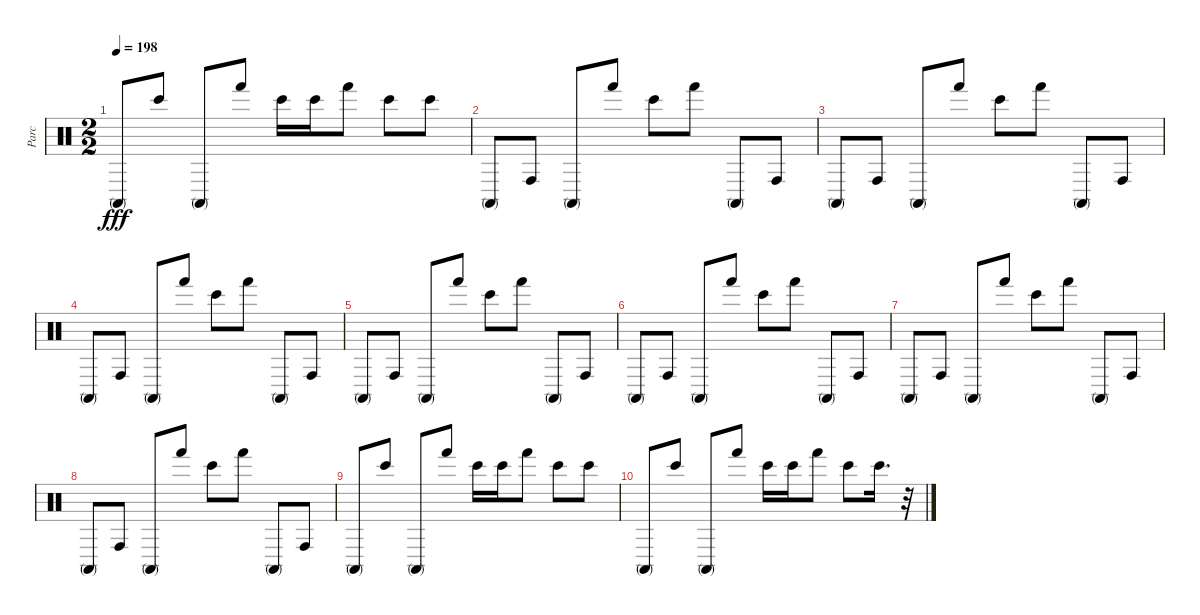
\track ("Parc" "Parc") {instrument percussion}
\staff {score}
\articulation defaults
\ts (2 2)
\tempo 198
\clef neutral
\ks c "Conga high (mute)".8{dy fff} "Bongo High (hit)".8 "Conga high (mute)".8 "Hand (hit)".8 "Bongo High (hit)".16 "Bongo High (hit)".16 "Hand (hit)".8 "Bongo High (hit)".8 "Bongo High (hit)".8
|
"Conga high (mute)".8 "Conga high (hit)".8 "Conga high (mute)".8 "Hand (hit)".8 "Bongo High (hit)".8 "Hand (hit)".8 "Conga high (mute)".8 "Conga high (hit)".8 |
"Conga high (mute)".8 "Conga high (hit)".8 "Conga high (mute)".8 "Hand (hit)".8 "Bongo High (hit)".8 "Hand (hit)".8 "Conga high (mute)".8 "Conga high (hit)".8 |
"Conga high (mute)".8 "Conga high (hit)".8 "Conga high (mute)".8 "Hand (hit)".8 "Bongo High (hit)".8 "Hand (hit)".8 "Conga high (mute)".8 "Conga high (hit)".8 |
"Conga high (mute)".8 "Conga high (hit)".8 "Conga high (mute)".8 "Hand (hit)".8 "Bongo High (hit)".8 "Hand (hit)".8 "Conga high (mute)".8 "Conga high (hit)".8 |
"Conga high (mute)".8 "Conga high (hit)".8 "Conga high (mute)".8 "Hand (hit)".8 "Bongo High (hit)".8 "Hand (hit)".8 "Conga high (mute)".8 "Conga high (hit)".8 |
"Conga high (mute)".8 "Conga high (hit)".8 "Conga high (mute)".8 "Hand (hit)".8 "Bongo High (hit)".8 "Hand (hit)".8 "Conga high (mute)".8 "Conga high (hit)".8 |
"Conga high (mute)".8 "Conga high (hit)".8 "Conga high (mute)".8 "Hand (hit)".8 "Bongo High (hit)".8 "Hand (hit)".8 "Conga high (mute)".8 "Conga high (hit)".8 |
"Conga high (mute)".8 "Bongo High (hit)".8 "Conga high (mute)".8 "Hand (hit)".8 "Bongo High (hit)".16 "Bongo High (hit)".16 "Hand (hit)".8 "Bongo High (hit)".8 "Bongo High (hit)".8 |
"Conga high (mute)".8 "Bongo High (hit)".8 "Conga high (mute)".8 "Hand (hit)".8 "Bongo High (hit)".16 "Bongo High (hit)".16 "Hand (hit)".8 "Bongo High (hit)".8 "Bongo High (hit)".16{d} r.32
